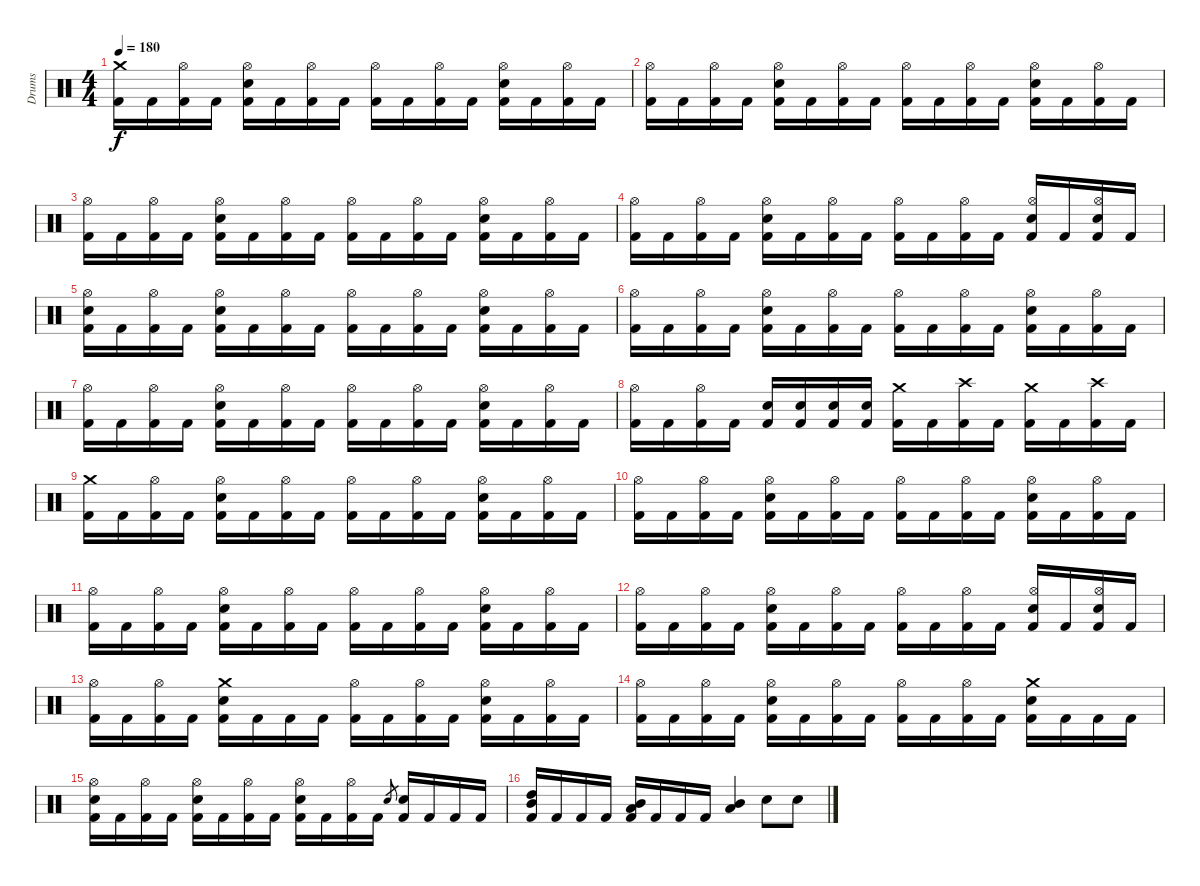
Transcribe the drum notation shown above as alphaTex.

\track ("Drums" "Drums") {instrument percussion}
\staff {score}
\articulation defaults
\ts (4 4)
\tempo 180
\clef neutral
\ks c
("Crash medium (hit)" "Kick (hit) 2").16{dy f} "Kick (hit) 2".16 ("Hi-Hat (open)" "Kick (hit) 2").16 "Kick (hit) 2".16 ("Hi-Hat (open)" "Electric Snare (hit)" "Kick (hit) 2").16 "Kick (hit) 2".16 ("Hi-Hat (open)" "Kick (hit) 2").16 "Kick (hit) 2".16 ("Hi-Hat (open)" "Kick (hit) 2").16 "Kick (hit) 2".16 ("Hi-Hat (open)" "Kick (hit) 2").16 "Kick (hit) 2".16 ("Hi-Hat (open)" "Electric Snare (hit)" "Kick (hit) 2").16 "Kick (hit) 2".16 ("Hi-Hat (open)" "Kick (hit) 2").16 "Kick (hit) 2".16 |
("Hi-Hat (open)" "Kick (hit) 2").16 "Kick (hit) 2".16 ("Hi-Hat (open)" "Kick (hit) 2").16 "Kick (hit) 2".16 ("Hi-Hat (open)" "Electric Snare (hit)" "Kick (hit) 2").16 "Kick (hit) 2".16 ("Hi-Hat (open)" "Kick (hit) 2").16 "Kick (hit) 2".16 ("Hi-Hat (open)" "Kick (hit) 2").16 "Kick (hit) 2".16 ("Hi-Hat (open)" "Kick (hit) 2").16 "Kick (hit) 2".16 ("Hi-Hat (open)" "Electric Snare (hit)" "Kick (hit) 2").16 "Kick (hit) 2".16 ("Hi-Hat (open)" "Kick (hit) 2").16 "Kick (hit) 2".16 |
("Hi-Hat (open)" "Kick (hit) 2").16 "Kick (hit) 2".16 ("Hi-Hat (open)" "Kick (hit) 2").16 "Kick (hit) 2".16 ("Hi-Hat (open)" "Electric Snare (hit)" "Kick (hit) 2").16 "Kick (hit) 2".16 ("Hi-Hat (open)" "Kick (hit) 2").16 "Kick (hit) 2".16 ("Hi-Hat (open)" "Kick (hit) 2").16 "Kick (hit) 2".16 ("Hi-Hat (open)" "Kick (hit) 2").16 "Kick (hit) 2".16 ("Hi-Hat (open)" "Electric Snare (hit)" "Kick (hit) 2").16 "Kick (hit) 2".16 ("Hi-Hat (open)" "Kick (hit) 2").16 "Kick (hit) 2".16 |
("Hi-Hat (open)" "Kick (hit) 2").16 "Kick (hit) 2".16 ("Hi-Hat (open)" "Kick (hit) 2").16 "Kick (hit) 2".16 ("Hi-Hat (open)" "Electric Snare (hit)" "Kick (hit) 2").16 "Kick (hit) 2".16 ("Hi-Hat (open)" "Kick (hit) 2").16 "Kick (hit) 2".16 ("Hi-Hat (open)" "Kick (hit) 2").16 "Kick (hit) 2".16 ("Hi-Hat (open)" "Kick (hit) 2").16 "Kick (hit) 2".16 ("Hi-Hat (open)" "Electric Snare (hit)" "Kick (hit) 2").16 "Kick (hit) 2".16 ("Hi-Hat (open)" "Electric Snare (hit)" "Kick (hit) 2").16 "Kick (hit) 2".16 |
("Hi-Hat (open)" "Electric Snare (hit)" "Kick (hit) 2").16 "Kick (hit) 2".16 ("Hi-Hat (open)" "Kick (hit) 2").16 "Kick (hit) 2".16 ("Hi-Hat (open)" "Electric Snare (hit)" "Kick (hit) 2").16 "Kick (hit) 2".16 ("Hi-Hat (open)" "Kick (hit) 2").16 "Kick (hit) 2".16 ("Hi-Hat (open)" "Kick (hit) 2").16 "Kick (hit) 2".16 ("Hi-Hat (open)" "Kick (hit) 2").16 "Kick (hit) 2".16 ("Hi-Hat (open)" "Electric Snare (hit)" "Kick (hit) 2").16 "Kick (hit) 2".16 ("Hi-Hat (open)" "Kick (hit) 2").16 "Kick (hit) 2".16 |
("Hi-Hat (open)" "Kick (hit) 2").16 "Kick (hit) 2".16 ("Hi-Hat (open)" "Kick (hit) 2").16 "Kick (hit) 2".16 ("Hi-Hat (open)" "Electric Snare (hit)" "Kick (hit) 2").16 "Kick (hit) 2".16 ("Hi-Hat (open)" "Kick (hit) 2").16 "Kick (hit) 2".16 ("Hi-Hat (open)" "Kick (hit) 2").16 "Kick (hit) 2".16 ("Hi-Hat (open)" "Kick (hit) 2").16 "Kick (hit) 2".16 ("Hi-Hat (open)" "Electric Snare (hit)" "Kick (hit) 2").16 "Kick (hit) 2".16 ("Hi-Hat (open)" "Kick (hit) 2").16 "Kick (hit) 2".16 |
("Hi-Hat (open)" "Kick (hit) 2").16 "Kick (hit) 2".16 ("Hi-Hat (open)" "Kick (hit) 2").16 "Kick (hit) 2".16 ("Hi-Hat (open)" "Electric Snare (hit)" "Kick (hit) 2").16 "Kick (hit) 2".16 ("Hi-Hat (open)" "Kick (hit) 2").16 "Kick (hit) 2".16 ("Hi-Hat (open)" "Kick (hit) 2").16 "Kick (hit) 2".16 ("Hi-Hat (open)" "Kick (hit) 2").16 "Kick (hit) 2".16 ("Hi-Hat (open)" "Electric Snare (hit)" "Kick (hit) 2").16 "Kick (hit) 2".16 ("Hi-Hat (open)" "Kick (hit) 2").16 "Kick (hit) 2".16 |
("Hi-Hat (open)" "Kick (hit) 2").16 "Kick (hit) 2".16 ("Hi-Hat (open)" "Kick (hit) 2").16 "Kick (hit) 2".16 ("Electric Snare (hit)" "Kick (hit) 2").16 ("Electric Snare (hit)" "Kick (hit) 2").16 ("Electric Snare (hit)" "Kick (hit) 2").16 ("Electric Snare (hit)" "Kick (hit) 2").16 ("Crash medium (hit)" "Kick (hit) 2").16 "Kick (hit) 2".16 ("Crash high (hit)" "Kick (hit) 2").16 "Kick (hit) 2".16 ("Crash medium (hit)" "Kick (hit) 2").16 "Kick (hit) 2".16 ("Crash high (hit)" "Kick (hit) 2").16 "Kick (hit) 2".16 |
("Crash medium (hit)" "Kick (hit) 2").16 "Kick (hit) 2".16 ("Hi-Hat (open)" "Kick (hit) 2").16 "Kick (hit) 2".16 ("Hi-Hat (open)" "Electric Snare (hit)" "Kick (hit) 2").16 "Kick (hit) 2".16 ("Hi-Hat (open)" "Kick (hit) 2").16 "Kick (hit) 2".16 ("Hi-Hat (open)" "Kick (hit) 2").16 "Kick (hit) 2".16 ("Hi-Hat (open)" "Kick (hit) 2").16 "Kick (hit) 2".16 ("Hi-Hat (open)" "Electric Snare (hit)" "Kick (hit) 2").16 "Kick (hit) 2".16 ("Hi-Hat (open)" "Kick (hit) 2").16 "Kick (hit) 2".16 |
("Hi-Hat (open)" "Kick (hit) 2").16 "Kick (hit) 2".16 ("Hi-Hat (open)" "Kick (hit) 2").16 "Kick (hit) 2".16 ("Hi-Hat (open)" "Electric Snare (hit)" "Kick (hit) 2").16 "Kick (hit) 2".16 ("Hi-Hat (open)" "Kick (hit) 2").16 "Kick (hit) 2".16 ("Hi-Hat (open)" "Kick (hit) 2").16 "Kick (hit) 2".16 ("Hi-Hat (open)" "Kick (hit) 2").16 "Kick (hit) 2".16 ("Hi-Hat (open)" "Electric Snare (hit)" "Kick (hit) 2").16 "Kick (hit) 2".16 ("Hi-Hat (open)" "Kick (hit) 2").16 "Kick (hit) 2".16 |
("Hi-Hat (open)" "Kick (hit) 2").16 "Kick (hit) 2".16 ("Hi-Hat (open)" "Kick (hit) 2").16 "Kick (hit) 2".16 ("Hi-Hat (open)" "Electric Snare (hit)" "Kick (hit) 2").16 "Kick (hit) 2".16 ("Hi-Hat (open)" "Kick (hit) 2").16 "Kick (hit) 2".16 ("Hi-Hat (open)" "Kick (hit) 2").16 "Kick (hit) 2".16 ("Hi-Hat (open)" "Kick (hit) 2").16 "Kick (hit) 2".16 ("Hi-Hat (open)" "Electric Snare (hit)" "Kick (hit) 2").16 "Kick (hit) 2".16 ("Hi-Hat (open)" "Kick (hit) 2").16 "Kick (hit) 2".16 |
("Hi-Hat (open)" "Kick (hit) 2").16 "Kick (hit) 2".16 ("Hi-Hat (open)" "Kick (hit) 2").16 "Kick (hit) 2".16 ("Hi-Hat (open)" "Electric Snare (hit)" "Kick (hit) 2").16 "Kick (hit) 2".16 ("Hi-Hat (open)" "Kick (hit) 2").16 "Kick (hit) 2".16 ("Hi-Hat (open)" "Kick (hit) 2").16 "Kick (hit) 2".16 ("Hi-Hat (open)" "Kick (hit) 2").16 "Kick (hit) 2".16 ("Hi-Hat (open)" "Electric Snare (hit)" "Kick (hit) 2").16 "Kick (hit) 2".16 ("Hi-Hat (open)" "Electric Snare (hit)" "Kick (hit) 2").16 "Kick (hit) 2".16 |
("Hi-Hat (open)" "Kick (hit) 2").16 "Kick (hit) 2".16 ("Hi-Hat (open)" "Kick (hit) 2").16 "Kick (hit) 2".16 ("Crash medium (hit)" "Electric Snare (hit)" "Kick (hit) 2").16 "Kick (hit) 2".16 "Kick (hit) 2".16 "Kick (hit) 2".16 ("Hi-Hat (open)" "Kick (hit) 2").16 "Kick (hit) 2".16 ("Hi-Hat (open)" "Kick (hit) 2").16 "Kick (hit) 2".16 ("Hi-Hat (open)" "Electric Snare (hit)" "Kick (hit) 2").16 "Kick (hit) 2".16 ("Hi-Hat (open)" "Kick (hit) 2").16 "Kick (hit) 2".16 |
("Hi-Hat (open)" "Kick (hit) 2").16 "Kick (hit) 2".16 ("Hi-Hat (open)" "Kick (hit) 2").16 "Kick (hit) 2".16 ("Hi-Hat (open)" "Electric Snare (hit)" "Kick (hit) 2").16 "Kick (hit) 2".16 ("Hi-Hat (open)" "Kick (hit) 2").16 "Kick (hit) 2".16 ("Hi-Hat (open)" "Kick (hit) 2").16 "Kick (hit) 2".16 ("Hi-Hat (open)" "Kick (hit) 2").16 "Kick (hit) 2".16 ("Crash medium (hit)" "Electric Snare (hit)" "Kick (hit) 2").16 "Kick (hit) 2".16 "Kick (hit) 2".16 "Kick (hit) 2".16 |
("Hi-Hat (open)" "Electric Snare (hit)" "Kick (hit) 2").16 "Kick (hit) 2".16 ("Hi-Hat (open)" "Kick (hit) 2").16 "Kick (hit) 2".16 ("Hi-Hat (open)" "Electric Snare (hit)" "Kick (hit) 2").16 "Kick (hit) 2".16 ("Hi-Hat (open)" "Kick (hit) 2").16 "Kick (hit) 2".16 ("Hi-Hat (open)" "Electric Snare (hit)" "Kick (hit) 2").16 "Kick (hit) 2".16 ("Hi-Hat (open)" "Kick (hit) 2").16 "Kick (hit) 2".16 "Electric Snare (hit)".8{gr} ("Electric Snare (hit)" "Kick (hit) 2").16 "Kick (hit) 2".16 "Kick (hit) 2".16 "Kick (hit) 2".16 |
("High Tom (hit)" "Mid Tom (hit)" "Kick (hit) 2").16 "Kick (hit) 2".16 "Kick (hit) 2".16 "Kick (hit) 2".16 ("Mid Tom (hit)" "Low Tom (hit)" "Kick (hit) 2").16 "Kick (hit) 2".16 "Kick (hit) 2".16 "Kick (hit) 2".16 ("Mid Tom (hit)" "Low Tom (hit)").4 "Electric Snare (hit)".8 "Electric Snare (hit)".8
